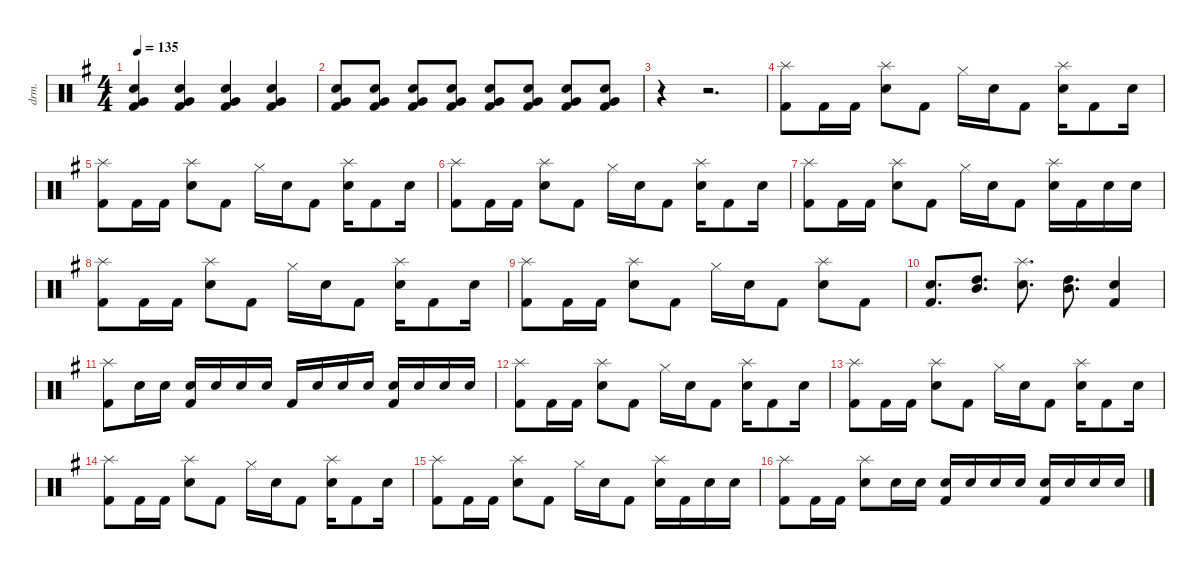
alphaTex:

\defaultSystemsLayout 4
\hideDynamics
\bracketExtendMode nobrackets
\track ("榧" "drm.") {instrument percussion}
\staff {score}
\articulation defaults
\ts (4 4)
\tempo 135
\clef neutral
\ks eminor
("Snare (hit) 2"{acc forcenatural} "Very Low Tom (hit)"{acc forcenatural} "Kick (hit) 2"{acc forcenatural}).4{dy mf beam Up} ("Snare (hit) 2"{acc forcenatural} "Very Low Tom (hit)"{acc forcenatural} "Kick (hit) 2"{acc forcenatural}).4{beam Up} ("Snare (hit) 2"{acc forcenatural} "Very Low Tom (hit)"{acc forcenatural} "Kick (hit) 2"{acc forcenatural}).4{beam Up} ("Snare (hit) 2"{acc forcenatural} "Very Low Tom (hit)"{acc forcenatural} "Kick (hit) 2"{acc forcenatural}).4{beam Up} |
("Snare (hit) 2"{acc forcenatural} "Very Low Tom (hit)"{acc forcenatural} "Kick (hit) 2"{acc forcenatural}).8{beam Up} ("Snare (hit) 2"{acc forcenatural} "Very Low Tom (hit)"{acc forcenatural} "Kick (hit) 2"{acc forcenatural}).8{beam Up} ("Snare (hit) 2"{acc forcenatural} "Very Low Tom (hit)"{acc forcenatural} "Kick (hit) 2"{acc forcenatural}).8{beam Up} ("Snare (hit) 2"{acc forcenatural} "Very Low Tom (hit)"{acc forcenatural} "Kick (hit) 2"{acc forcenatural}).8{beam Up} ("Snare (hit) 2"{acc forcenatural} "Very Low Tom (hit)"{acc forcenatural} "Kick (hit) 2"{acc forcenatural}).8{beam Up} ("Snare (hit) 2"{acc forcenatural} "Very Low Tom (hit)"{acc forcenatural} "Kick (hit) 2"{acc forcenatural}).8{beam Up} ("Snare (hit) 2"{acc forcenatural} "Very Low Tom (hit)"{acc forcenatural} "Kick (hit) 2"{acc forcenatural}).8{beam Up} ("Snare (hit) 2"{acc forcenatural} "Very Low Tom (hit)"{acc forcenatural} "Kick (hit) 2"{acc forcenatural}).8{beam Up} |
r.4{beam Down} r.2{d beam Down} |
("Kick (hit) 2"{acc forcenatural} "Splash (hit)"{acc forcenatural}).8{beam Down} "Kick (hit) 2"{acc forcenatural}.16{beam Down} "Kick (hit) 2"{acc forcenatural}.16{beam Down} ("Splash (hit)"{acc forcenatural} "Snare (hit) 2"{acc forcenatural}).8{beam Down} "Kick (hit) 2"{acc forcenatural}.8{beam Down} "Hi-Hat (closed)"{acc forcenatural}.16{beam Down} "Snare (hit) 2"{acc forcenatural}.16{beam Down} "Kick (hit) 2"{acc forcenatural}.8{beam Down} ("Splash (hit)"{acc forcenatural} "Snare (hit) 2"{acc forcenatural}).16{beam Down} "Kick (hit) 2"{acc forcenatural}.8{beam Down} "Snare (hit) 2"{acc forcenatural}.16{beam Down} |
("Kick (hit) 2"{acc forcenatural} "Splash (hit)"{acc forcenatural}).8{beam Down} "Kick (hit) 2"{acc forcenatural}.16{beam Down} "Kick (hit) 2"{acc forcenatural}.16{beam Down} ("Splash (hit)"{acc forcenatural} "Snare (hit) 2"{acc forcenatural}).8{beam Down} "Kick (hit) 2"{acc forcenatural}.8{beam Down} "Hi-Hat (closed)"{acc forcenatural}.16{beam Down} "Snare (hit) 2"{acc forcenatural}.16{beam Down} "Kick (hit) 2"{acc forcenatural}.8{beam Down} ("Splash (hit)"{acc forcenatural} "Snare (hit) 2"{acc forcenatural}).16{beam Down} "Kick (hit) 2"{acc forcenatural}.8{beam Down} "Snare (hit) 2"{acc forcenatural}.16{beam Down} |
("Kick (hit) 2"{acc forcenatural} "Splash (hit)"{acc forcenatural}).8{beam Down} "Kick (hit) 2"{acc forcenatural}.16{beam Down} "Kick (hit) 2"{acc forcenatural}.16{beam Down} ("Splash (hit)"{acc forcenatural} "Snare (hit) 2"{acc forcenatural}).8{beam Down} "Kick (hit) 2"{acc forcenatural}.8{beam Down} "Hi-Hat (closed)"{acc forcenatural}.16{beam Down} "Snare (hit) 2"{acc forcenatural}.16{beam Down} "Kick (hit) 2"{acc forcenatural}.8{beam Down} ("Splash (hit)"{acc forcenatural} "Snare (hit) 2"{acc forcenatural}).16{beam Down} "Kick (hit) 2"{acc forcenatural}.8{beam Down} "Snare (hit) 2"{acc forcenatural}.16{beam Down} |
("Kick (hit) 2"{acc forcenatural} "Splash (hit)"{acc forcenatural}).8{beam Down} "Kick (hit) 2"{acc forcenatural}.16{beam Down} "Kick (hit) 2"{acc forcenatural}.16{beam Down} ("Splash (hit)"{acc forcenatural} "Snare (hit) 2"{acc forcenatural}).8{beam Down} "Kick (hit) 2"{acc forcenatural}.8{beam Down} "Hi-Hat (closed)"{acc forcenatural}.16{beam Down} "Snare (hit) 2"{acc forcenatural}.16{beam Down} "Kick (hit) 2"{acc forcenatural}.8{beam Down} ("Splash (hit)"{acc forcenatural} "Snare (hit) 2"{acc forcenatural}).16{beam Down} "Kick (hit) 2"{acc forcenatural}.16{beam Down} "Snare (hit) 2"{acc forcenatural}.16{beam Down} "Snare (hit) 2"{acc forcenatural}.16{beam Down} |
("Kick (hit) 2"{acc forcenatural} "Splash (hit)"{acc forcenatural}).8{beam Down} "Kick (hit) 2"{acc forcenatural}.16{beam Down} "Kick (hit) 2"{acc forcenatural}.16{beam Down} ("Splash (hit)"{acc forcenatural} "Snare (hit) 2"{acc forcenatural}).8{beam Down} "Kick (hit) 2"{acc forcenatural}.8{beam Down} "Hi-Hat (closed)"{acc forcenatural}.16{beam Down} "Snare (hit) 2"{acc forcenatural}.16{beam Down} "Kick (hit) 2"{acc forcenatural}.8{beam Down} ("Splash (hit)"{acc forcenatural} "Snare (hit) 2"{acc forcenatural}).16{beam Down} "Kick (hit) 2"{acc forcenatural}.8{beam Down} "Snare (hit) 2"{acc forcenatural}.16{beam Down} |
("Kick (hit) 2"{acc forcenatural} "Splash (hit)"{acc forcenatural}).8{beam Down} "Kick (hit) 2"{acc forcenatural}.16{beam Down} "Kick (hit) 2"{acc forcenatural}.16{beam Down} ("Splash (hit)"{acc forcenatural} "Snare (hit) 2"{acc forcenatural}).8{beam Down} "Kick (hit) 2"{acc forcenatural}.8{beam Down} "Hi-Hat (closed)"{acc forcenatural}.16{beam Down} "Snare (hit) 2"{acc forcenatural}.16{beam Down} "Kick (hit) 2"{acc forcenatural}.8{beam Down} ("Splash (hit)"{acc forcenatural} "Snare (hit) 2"{acc forcenatural}).8{beam Down} "Kick (hit) 2"{acc forcenatural}.8{beam Down} |
("Kick (hit) 2"{acc forcenatural} "Snare (hit) 2"{acc forcenatural}).8{d beam Up} ("Mid Tom (hit)"{acc forcenatural} "High Tom (hit)"{acc forcenatural}).8{d beam Up} ("Splash (hit)"{acc forcenatural} "Snare (hit) 2"{acc forcenatural}).8{d beam Down} ("Mid Tom (hit)"{acc forcenatural} "High Tom (hit)"{acc forcenatural}).8{d beam Down} ("Kick (hit) 2"{acc forcenatural} "Snare (hit) 2"{acc forcenatural}).4{beam Up} |
("Kick (hit) 2"{acc forcenatural} "Splash (hit)"{acc forcenatural}).8{beam Down} "Snare (hit) 2"{acc forcenatural}.16{beam Down} "Snare (hit) 2"{acc forcenatural}.16{beam Down} ("Snare (hit) 2"{acc forcenatural} "Kick (hit) 2"{acc forcenatural}).16{beam Up} "Snare (hit) 2"{acc forcenatural}.16{beam Up} "Snare (hit) 2"{acc forcenatural}.16{beam Up} "Snare (hit) 2"{acc forcenatural}.16{beam Up} "Kick (hit) 2"{acc forcenatural}.16{beam Up} "Snare (hit) 2"{acc forcenatural}.16{beam Up} "Snare (hit) 2"{acc forcenatural}.16{beam Up} "Snare (hit) 2"{acc forcenatural}.16{beam Up} ("Kick (hit) 2"{acc forcenatural} "Snare (hit) 2"{acc forcenatural}).16{beam Up} "Snare (hit) 2"{acc forcenatural}.16{beam Up} "Snare (hit) 2"{acc forcenatural}.16{beam Up} "Snare (hit) 2"{acc forcenatural}.16{beam Up} |
("Kick (hit) 2"{acc forcenatural} "Splash (hit)"{acc forcenatural}).8{beam Down} "Kick (hit) 2"{acc forcenatural}.16{beam Down} "Kick (hit) 2"{acc forcenatural}.16{beam Down} ("Splash (hit)"{acc forcenatural} "Snare (hit) 2"{acc forcenatural}).8{beam Down} "Kick (hit) 2"{acc forcenatural}.8{beam Down} "Hi-Hat (closed)"{acc forcenatural}.16{beam Down} "Snare (hit) 2"{acc forcenatural}.16{beam Down} "Kick (hit) 2"{acc forcenatural}.8{beam Down} ("Splash (hit)"{acc forcenatural} "Snare (hit) 2"{acc forcenatural}).16{beam Down} "Kick (hit) 2"{acc forcenatural}.8{beam Down} "Snare (hit) 2"{acc forcenatural}.16{beam Down} |
("Kick (hit) 2"{acc forcenatural} "Splash (hit)"{acc forcenatural}).8{beam Down} "Kick (hit) 2"{acc forcenatural}.16{beam Down} "Kick (hit) 2"{acc forcenatural}.16{beam Down} ("Splash (hit)"{acc forcenatural} "Snare (hit) 2"{acc forcenatural}).8{beam Down} "Kick (hit) 2"{acc forcenatural}.8{beam Down} "Hi-Hat (closed)"{acc forcenatural}.16{beam Down} "Snare (hit) 2"{acc forcenatural}.16{beam Down} "Kick (hit) 2"{acc forcenatural}.8{beam Down} ("Splash (hit)"{acc forcenatural} "Snare (hit) 2"{acc forcenatural}).16{beam Down} "Kick (hit) 2"{acc forcenatural}.8{beam Down} "Snare (hit) 2"{acc forcenatural}.16{beam Down} |
("Kick (hit) 2"{acc forcenatural} "Splash (hit)"{acc forcenatural}).8{beam Down} "Kick (hit) 2"{acc forcenatural}.16{beam Down} "Kick (hit) 2"{acc forcenatural}.16{beam Down} ("Splash (hit)"{acc forcenatural} "Snare (hit) 2"{acc forcenatural}).8{beam Down} "Kick (hit) 2"{acc forcenatural}.8{beam Down} "Hi-Hat (closed)"{acc forcenatural}.16{beam Down} "Snare (hit) 2"{acc forcenatural}.16{beam Down} "Kick (hit) 2"{acc forcenatural}.8{beam Down} ("Splash (hit)"{acc forcenatural} "Snare (hit) 2"{acc forcenatural}).16{beam Down} "Kick (hit) 2"{acc forcenatural}.8{beam Down} "Snare (hit) 2"{acc forcenatural}.16{beam Down} |
("Kick (hit) 2"{acc forcenatural} "Splash (hit)"{acc forcenatural}).8{beam Down} "Kick (hit) 2"{acc forcenatural}.16{beam Down} "Kick (hit) 2"{acc forcenatural}.16{beam Down} ("Splash (hit)"{acc forcenatural} "Snare (hit) 2"{acc forcenatural}).8{beam Down} "Kick (hit) 2"{acc forcenatural}.8{beam Down} "Hi-Hat (closed)"{acc forcenatural}.16{beam Down} "Snare (hit) 2"{acc forcenatural}.16{beam Down} "Kick (hit) 2"{acc forcenatural}.8{beam Down} ("Splash (hit)"{acc forcenatural} "Snare (hit) 2"{acc forcenatural}).16{beam Down} "Kick (hit) 2"{acc forcenatural}.16{beam Down} "Snare (hit) 2"{acc forcenatural}.16{beam Down} "Snare (hit) 2"{acc forcenatural}.16{beam Down} |
("Kick (hit) 2"{acc forcenatural} "Splash (hit)"{acc forcenatural}).8{beam Down} "Kick (hit) 2"{acc forcenatural}.16{beam Down} "Kick (hit) 2"{acc forcenatural}.16{beam Down} ("Splash (hit)"{acc forcenatural} "Snare (hit) 2"{acc forcenatural}).8{beam Down} "Snare (hit) 2"{acc forcenatural}.16{beam Down} "Snare (hit) 2"{acc forcenatural}.16{beam Down} ("Snare (hit) 2"{acc forcenatural} "Kick (hit) 2"{acc forcenatural}).16{beam Up} "Snare (hit) 2"{acc forcenatural}.16{beam Up} "Snare (hit) 2"{acc forcenatural}.16{beam Up} "Snare (hit) 2"{acc forcenatural}.16{beam Up} ("Snare (hit) 2"{acc forcenatural} "Kick (hit) 2"{acc forcenatural}).16{beam Up} "Snare (hit) 2"{acc forcenatural}.16{beam Up} "Snare (hit) 2"{acc forcenatural}.16{beam Up} "Snare (hit) 2"{acc forcenatural}.16{beam Up}
